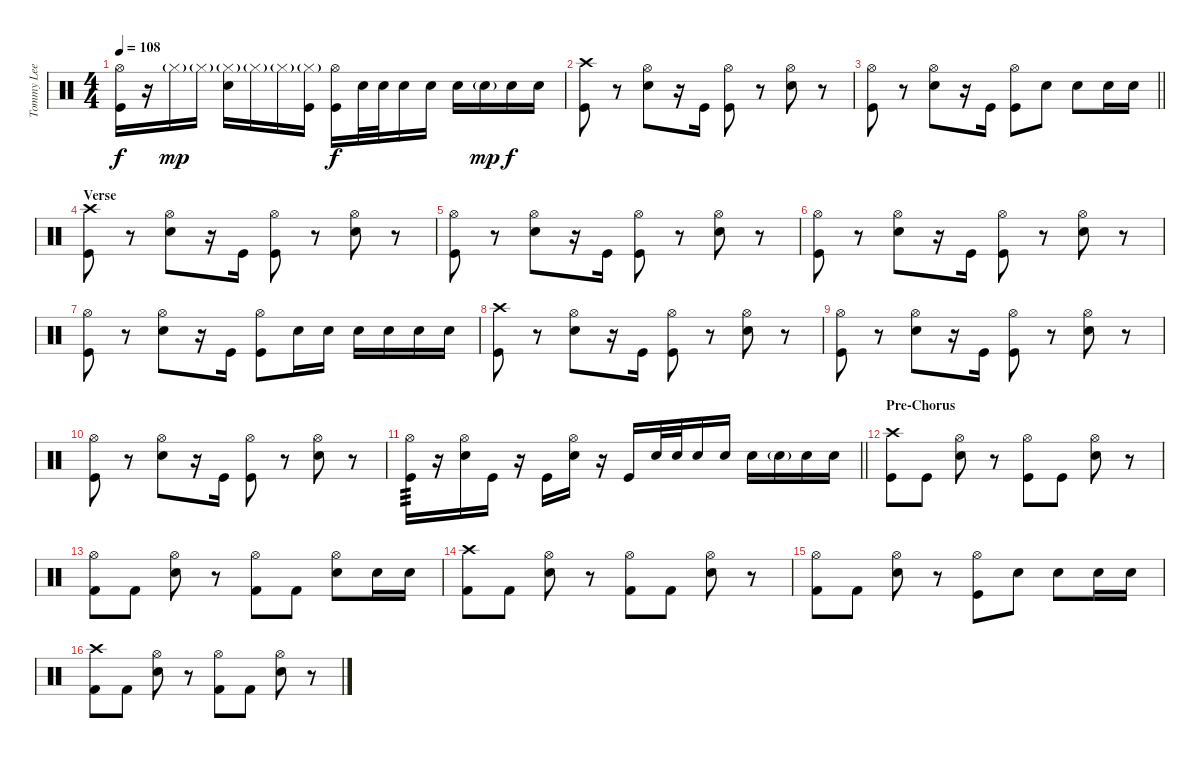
\track ("Tommy Lee" "Tommy Lee") {instrument percussion}
\staff {score}
\articulation defaults
\ts (4 4)
\tempo 108
\clef neutral
\ks c
("Hi-Hat (open)" "Kick (hit)").16{dy f} r.16 "Hi-Hat (closed)"{g}.16{dy mp} "Hi-Hat (closed)"{g}.16 ("Hi-Hat (closed)"{g} "Snare (hit) 2").16 "Hi-Hat (closed)"{g}.16 "Hi-Hat (closed)"{g}.16 ("Hi-Hat (closed)"{g} "Kick (hit)").16 ("Hi-Hat (open)" "Kick (hit)").16{dy f} "Snare (hit) 2".32 "Snare (hit) 2".32 "Snare (hit) 2".16 "Snare (hit) 2".16 "Snare (hit) 2".16 "Snare (hit) 2"{g}.16{dy mp} "Snare (hit) 2".16{dy f} "Snare (hit) 2".16 |
("Crash high (hit)" "Kick (hit)").8 r.8 ("Hi-Hat (open)" "Snare (hit) 2").8 r.16 "Kick (hit)".16 ("Hi-Hat (open)" "Kick (hit)").8 r.8 ("Hi-Hat (open)" "Snare (hit) 2").8 r.8 |
\barLineRight lightlight
("Hi-Hat (open)" "Kick (hit)").8 r.8 ("Hi-Hat (open)" "Snare (hit) 2").8 r.16 "Kick (hit)".16 ("Hi-Hat (open)" "Kick (hit)").8 "Snare (hit) 2".8 "Snare (hit) 2".8 "Snare (hit) 2".16 "Snare (hit) 2".16 |
\section ("" "Verse")
("Crash high (hit)" "Kick (hit)").8 r.8 ("Hi-Hat (open)" "Snare (hit) 2").8 r.16 "Kick (hit)".16 ("Hi-Hat (open)" "Kick (hit)").8 r.8 ("Hi-Hat (open)" "Snare (hit) 2").8 r.8 |
("Hi-Hat (open)" "Kick (hit)").8 r.8 ("Hi-Hat (open)" "Snare (hit) 2").8 r.16 "Kick (hit)".16 ("Hi-Hat (open)" "Kick (hit)").8 r.8 ("Hi-Hat (open)" "Snare (hit) 2").8 r.8 |
("Hi-Hat (open)" "Kick (hit)").8 r.8 ("Hi-Hat (open)" "Snare (hit) 2").8 r.16 "Kick (hit)".16 ("Hi-Hat (open)" "Kick (hit)").8 r.8 ("Hi-Hat (open)" "Snare (hit) 2").8 r.8 |
("Hi-Hat (open)" "Kick (hit)").8 r.8 ("Hi-Hat (open)" "Snare (hit) 2").8 r.16 "Kick (hit)".16 ("Hi-Hat (open)" "Kick (hit)").8 "Snare (hit) 2".16 "Snare (hit) 2".16 "Snare (hit) 2".16 "Snare (hit) 2".16 "Snare (hit) 2".16 "Snare (hit) 2".16 |
("Crash high (hit)" "Kick (hit)").8 r.8 ("Hi-Hat (open)" "Snare (hit) 2").8 r.16 "Kick (hit)".16 ("Hi-Hat (open)" "Kick (hit)").8 r.8 ("Hi-Hat (open)" "Snare (hit) 2").8 r.8 |
("Hi-Hat (open)" "Kick (hit)").8 r.8 ("Hi-Hat (open)" "Snare (hit) 2").8 r.16 "Kick (hit)".16 ("Hi-Hat (open)" "Kick (hit)").8 r.8 ("Hi-Hat (open)" "Snare (hit) 2").8 r.8 |
("Hi-Hat (open)" "Kick (hit)").8 r.8 ("Hi-Hat (open)" "Snare (hit) 2").8 r.16 "Kick (hit)".16 ("Hi-Hat (open)" "Kick (hit)").8 r.8 ("Hi-Hat (open)" "Snare (hit) 2").8 r.8 |
\barLineRight lightlight
("Hi-Hat (open)" "Kick (hit)").16{tp 3} r.16 ("Hi-Hat (open)" "Snare (hit) 2").16 "Kick (hit)".16 r.16 "Kick (hit)".16 ("Hi-Hat (open)" "Snare (hit) 2").16 r.16 "Kick (hit)".16 "Snare (hit) 2".32 "Snare (hit) 2".32 "Snare (hit) 2".16 "Snare (hit) 2".16 "Snare (hit) 2".16 "Snare (hit) 2"{g}.16 "Snare (hit) 2".16 "Snare (hit) 2".16 |
\section ("" "Pre-Chorus")
("Crash high (hit)" "Kick (hit)").8 "Kick (hit)".8 ("Hi-Hat (open)" "Snare (hit) 2").8 r.8 ("Hi-Hat (open)" "Kick (hit)").8 "Kick (hit)".8 ("Hi-Hat (open)" "Snare (hit) 2").8 r.8 |
("Hi-Hat (open)" "Kick (hit) 2").8 "Kick (hit) 2".8 ("Hi-Hat (open)" "Snare (hit) 2").8 r.8 ("Hi-Hat (open)" "Kick (hit) 2").8 "Kick (hit) 2".8 ("Hi-Hat (open)" "Snare (hit) 2").8 "Snare (hit) 2".16 "Snare (hit) 2".16 |
("Crash high (hit)" "Kick (hit) 2").8 "Kick (hit) 2".8 ("Hi-Hat (open)" "Snare (hit) 2").8 r.8 ("Hi-Hat (open)" "Kick (hit) 2").8 "Kick (hit) 2".8 ("Hi-Hat (open)" "Snare (hit) 2").8 r.8 |
("Hi-Hat (open)" "Kick (hit) 2").8 "Kick (hit) 2".8 ("Hi-Hat (open)" "Snare (hit) 2").8 r.8 ("Hi-Hat (open)" "Kick (hit)").8 "Snare (hit) 2".8 "Snare (hit) 2".8 "Snare (hit) 2".16 "Snare (hit) 2".16 |
("Crash high (hit)" "Kick (hit) 2").8 "Kick (hit) 2".8 ("Hi-Hat (open)" "Snare (hit) 2").8 r.8 ("Hi-Hat (open)" "Kick (hit) 2").8 "Kick (hit) 2".8 ("Hi-Hat (open)" "Snare (hit) 2").8 r.8
